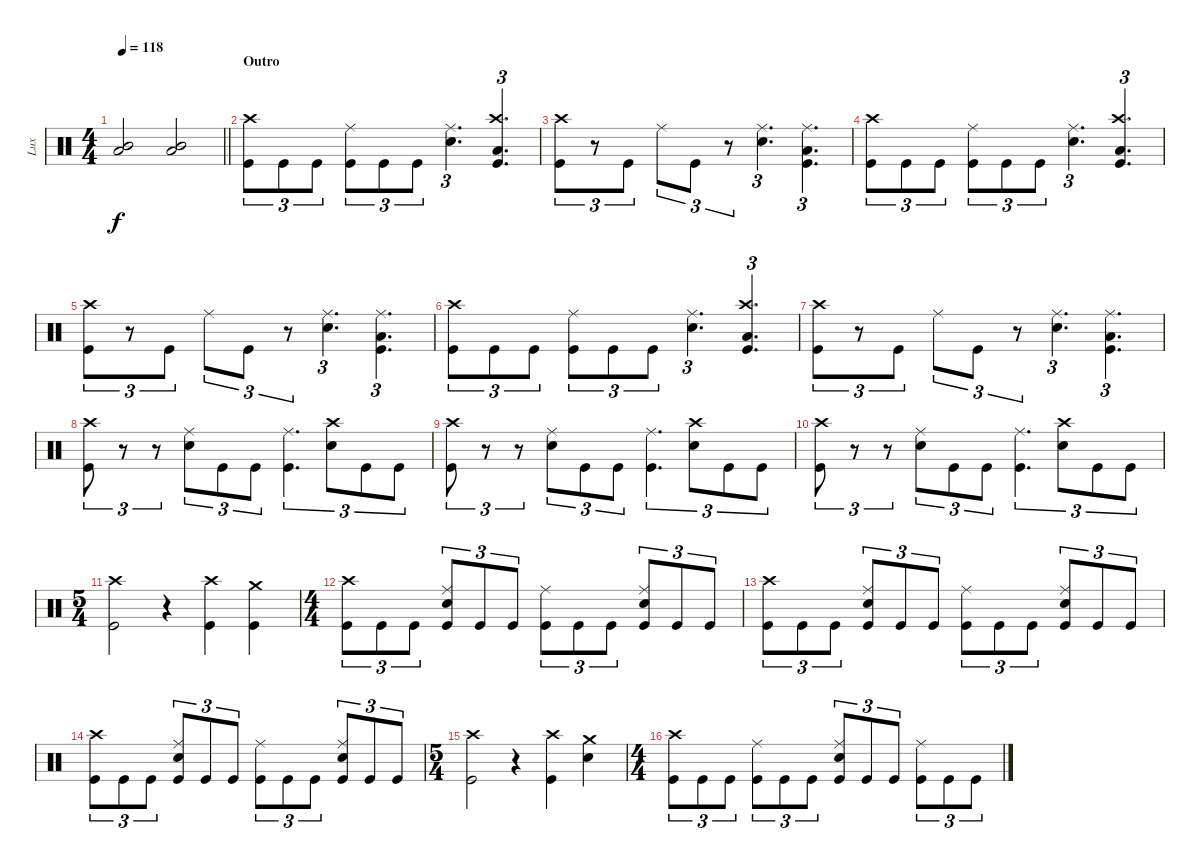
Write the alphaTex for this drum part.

\track ("Lux" "Lux") {instrument percussion}
\staff {score}
\articulation defaults
\ts (4 4)
\tempo 118
\clef neutral
\barLineRight lightlight
\ks c
("Mid Tom (hit)" "Low Tom (hit)").2{dy f} ("Mid Tom (hit)" "Low Tom (hit)").2 |
\section ("" "Outro")
("Crash high (hit)" "Kick (hit)").8{tu (3 2)} "Kick (hit)".8{tu (3 2)} "Kick (hit)".8{tu (3 2)} ("Ride (middle)" "Kick (hit)").8{tu (3 2)} "Kick (hit)".8{tu (3 2)} "Kick (hit)".8{tu (3 2)} ("Ride (middle)" "Snare (hit) 2").4{d tu (3 2)} ("Crash high (hit)" "Low Tom (hit)" "Kick (hit)").4{d tu (3 2)} |
("Crash high (hit)" "Kick (hit)").8{tu (3 2)} r.8{tu (3 2)} "Kick (hit)".8{tu (3 2)} "Ride (middle)".8{tu (3 2)} "Kick (hit)".8{tu (3 2)} r.8{tu (3 2)} ("Ride (middle)" "Snare (hit) 2").4{d tu (3 2)} ("Ride (middle)" "Low Tom (hit)" "Kick (hit)").4{d tu (3 2)} |
("Crash high (hit)" "Kick (hit)").8{tu (3 2)} "Kick (hit)".8{tu (3 2)} "Kick (hit)".8{tu (3 2)} ("Ride (middle)" "Kick (hit)").8{tu (3 2)} "Kick (hit)".8{tu (3 2)} "Kick (hit)".8{tu (3 2)} ("Ride (middle)" "Snare (hit) 2").4{d tu (3 2)} ("Crash high (hit)" "Low Tom (hit)" "Kick (hit)").4{d tu (3 2)} |
("Crash high (hit)" "Kick (hit)").8{tu (3 2)} r.8{tu (3 2)} "Kick (hit)".8{tu (3 2)} "Ride (middle)".8{tu (3 2)} "Kick (hit)".8{tu (3 2)} r.8{tu (3 2)} ("Ride (middle)" "Snare (hit) 2").4{d tu (3 2)} ("Ride (middle)" "Low Tom (hit)" "Kick (hit)").4{d tu (3 2)} |
("Crash high (hit)" "Kick (hit)").8{tu (3 2)} "Kick (hit)".8{tu (3 2)} "Kick (hit)".8{tu (3 2)} ("Ride (middle)" "Kick (hit)").8{tu (3 2)} "Kick (hit)".8{tu (3 2)} "Kick (hit)".8{tu (3 2)} ("Ride (middle)" "Snare (hit) 2").4{d tu (3 2)} ("Crash high (hit)" "Low Tom (hit)" "Kick (hit)").4{d tu (3 2)} |
("Crash high (hit)" "Kick (hit)").8{tu (3 2)} r.8{tu (3 2)} "Kick (hit)".8{tu (3 2)} "Ride (middle)".8{tu (3 2)} "Kick (hit)".8{tu (3 2)} r.8{tu (3 2)} ("Ride (middle)" "Snare (hit) 2").4{d tu (3 2)} ("Ride (middle)" "Low Tom (hit)" "Kick (hit)").4{d tu (3 2)} |
("Crash high (hit)" "Kick (hit)").8{tu (3 2)} r.8{tu (3 2)} r.8{tu (3 2)} ("Ride (middle)" "Snare (hit) 2").8{tu (3 2)} "Kick (hit)".8{tu (3 2)} "Kick (hit)".8{tu (3 2)} ("Ride (middle)" "Kick (hit)").4{d tu (3 2)} ("Crash high (hit)" "Snare (hit) 2").8{tu (3 2)} "Kick (hit)".8{tu (3 2)} "Kick (hit)".8{tu (3 2)} |
("Crash high (hit)" "Kick (hit)").8{tu (3 2)} r.8{tu (3 2)} r.8{tu (3 2)} ("Ride (middle)" "Snare (hit) 2").8{tu (3 2)} "Kick (hit)".8{tu (3 2)} "Kick (hit)".8{tu (3 2)} ("Ride (middle)" "Kick (hit)").4{d tu (3 2)} ("Crash high (hit)" "Snare (hit) 2").8{tu (3 2)} "Kick (hit)".8{tu (3 2)} "Kick (hit)".8{tu (3 2)} |
("Crash high (hit)" "Kick (hit)").8{tu (3 2)} r.8{tu (3 2)} r.8{tu (3 2)} ("Ride (middle)" "Snare (hit) 2").8{tu (3 2)} "Kick (hit)".8{tu (3 2)} "Kick (hit)".8{tu (3 2)} ("Ride (middle)" "Kick (hit)").4{d tu (3 2)} ("Crash high (hit)" "Snare (hit) 2").8{tu (3 2)} "Kick (hit)".8{tu (3 2)} "Kick (hit)".8{tu (3 2)} |
\ts (5 4)
("Crash high (hit)" "Kick (hit)").2 r.4 ("Crash high (hit)" "Kick (hit)").4 ("Crash medium (hit)" "Kick (hit)").4 |
\ts (4 4)
("Crash high (hit)" "Kick (hit)").8{tu (3 2)} "Kick (hit)".8{tu (3 2)} "Kick (hit)".8{tu (3 2)} ("Ride (middle)" "Snare (hit) 2" "Kick (hit)").8{tu (3 2)} "Kick (hit)".8{tu (3 2)} "Kick (hit)".8{tu (3 2)} ("Ride (middle)" "Kick (hit)").8{tu (3 2)} "Kick (hit)".8{tu (3 2)} "Kick (hit)".8{tu (3 2)} ("Ride (middle)" "Snare (hit) 2" "Kick (hit)").8{tu (3 2)} "Kick (hit)".8{tu (3 2)} "Kick (hit)".8{tu (3 2)} |
("Crash high (hit)" "Kick (hit)").8{tu (3 2)} "Kick (hit)".8{tu (3 2)} "Kick (hit)".8{tu (3 2)} ("Ride (middle)" "Snare (hit) 2" "Kick (hit)").8{tu (3 2)} "Kick (hit)".8{tu (3 2)} "Kick (hit)".8{tu (3 2)} ("Ride (middle)" "Kick (hit)").8{tu (3 2)} "Kick (hit)".8{tu (3 2)} "Kick (hit)".8{tu (3 2)} ("Ride (middle)" "Snare (hit) 2" "Kick (hit)").8{tu (3 2)} "Kick (hit)".8{tu (3 2)} "Kick (hit)".8{tu (3 2)} |
("Crash high (hit)" "Kick (hit)").8{tu (3 2)} "Kick (hit)".8{tu (3 2)} "Kick (hit)".8{tu (3 2)} ("Ride (middle)" "Snare (hit) 2" "Kick (hit)").8{tu (3 2)} "Kick (hit)".8{tu (3 2)} "Kick (hit)".8{tu (3 2)} ("Ride (middle)" "Kick (hit)").8{tu (3 2)} "Kick (hit)".8{tu (3 2)} "Kick (hit)".8{tu (3 2)} ("Ride (middle)" "Snare (hit) 2" "Kick (hit)").8{tu (3 2)} "Kick (hit)".8{tu (3 2)} "Kick (hit)".8{tu (3 2)} |
\ts (5 4)
("Crash high (hit)" "Kick (hit)").2 r.4 ("Crash high (hit)" "Kick (hit)").4 ("Crash medium (hit)" "Snare (hit) 2").4 |
\ts (4 4)
("Crash high (hit)" "Kick (hit)").8{tu (3 2)} "Kick (hit)".8{tu (3 2)} "Kick (hit)".8{tu (3 2)} ("Ride (middle)" "Kick (hit)").8{tu (3 2)} "Kick (hit)".8{tu (3 2)} "Kick (hit)".8{tu (3 2)} ("Ride (middle)" "Snare (hit) 2" "Kick (hit)").8{tu (3 2)} "Kick (hit)".8{tu (3 2)} "Kick (hit)".8{tu (3 2)} ("Ride (middle)" "Kick (hit)").8{tu (3 2)} "Kick (hit)".8{tu (3 2)} "Kick (hit)".8{tu (3 2)}
